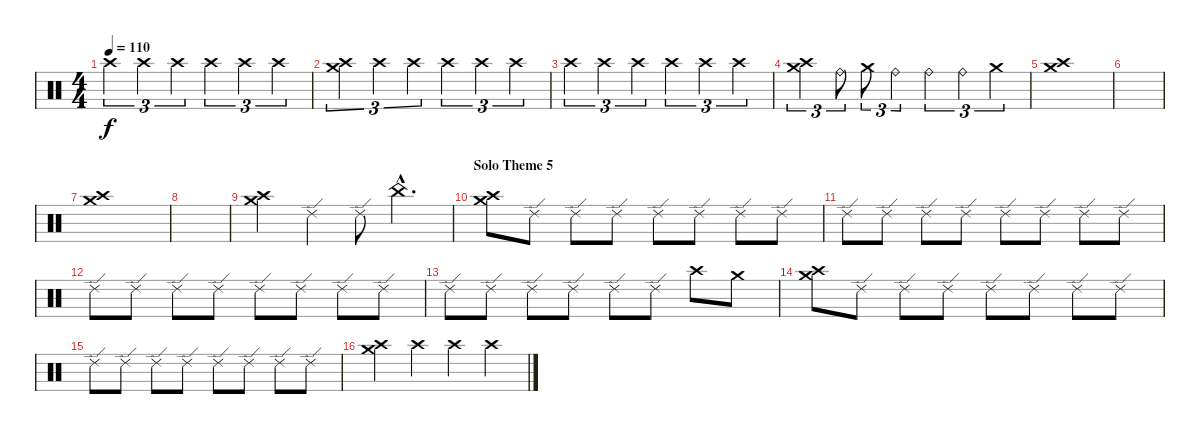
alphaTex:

\track "" {instrument percussion}
\staff {score}
\articulation defaults
\ts (4 4)
\tempo 110
\clef neutral
\ks c "Crash high (hit)".4{tu (3 2) dy f} "Crash high (hit)".4{tu (3 2)} "Crash high (hit)".4{tu (3 2)} "Crash high (hit)".4{tu (3 2)} "Crash high (hit)".4{tu (3 2)} "Crash high (hit)".4{tu (3 2)}
|
("Crash medium (hit)" "Crash high (hit)").4{tu (3 2)} "Crash high (hit)".4{tu (3 2)} "Crash high (hit)".4{tu (3 2)} "Crash high (hit)".4{tu (3 2)} "Crash high (hit)".4{tu (3 2)} "Crash high (hit)".4{tu (3 2)} |
"Crash high (hit)".4{tu (3 2)} "Crash high (hit)".4{tu (3 2)} "Crash high (hit)".4{tu (3 2)} "Crash high (hit)".4{tu (3 2)} "Crash high (hit)".4{tu (3 2)} "Crash high (hit)".4{tu (3 2)} |
("Crash medium (hit)" "Crash high (hit)").4{tu (3 2)} "Ride (bell)".8{tu (3 2)} "Crash medium (hit)".8{tu (3 2)} "Ride (bell)".4{tu (3 2)} "Ride (bell)".4{tu (3 2)} "Ride (bell)".4{tu (3 2)} "Crash medium (hit)".4{tu (3 2)} |
("Crash medium (hit)" "Crash high (hit)").1 |
|
("Crash medium (hit)" "Crash high (hit)").1 |
|
("Crash medium (hit)" "Crash high (hit)").4 "Ride (edge) 2".4 "Ride (edge) 2".8 "China (hit)"{hac}.4{d} |
\section ("" "Solo Theme 5")
("Crash medium (hit)" "Crash high (hit)").8 "Ride (edge) 2".8 "Ride (edge) 2".8 "Ride (edge) 2".8 "Ride (edge) 2".8 "Ride (edge) 2".8 "Ride (edge) 2".8 "Ride (edge) 2".8 |
"Ride (edge) 2".8 "Ride (edge) 2".8 "Ride (edge) 2".8 "Ride (edge) 2".8 "Ride (edge) 2".8 "Ride (edge) 2".8 "Ride (edge) 2".8 "Ride (edge) 2".8 |
"Ride (edge) 2".8 "Ride (edge) 2".8 "Ride (edge) 2".8 "Ride (edge) 2".8 "Ride (edge) 2".8 "Ride (edge) 2".8 "Ride (edge) 2".8 "Ride (edge) 2".8 |
"Ride (edge) 2".8 "Ride (edge) 2".8 "Ride (edge) 2".8 "Ride (edge) 2".8 "Ride (edge) 2".8 "Ride (edge) 2".8 "Crash high (hit)".8 "Crash medium (hit)".8 |
("Crash medium (hit)" "Crash high (hit)").8 "Ride (edge) 2".8 "Ride (edge) 2".8 "Ride (edge) 2".8 "Ride (edge) 2".8 "Ride (edge) 2".8 "Ride (edge) 2".8 "Ride (edge) 2".8 |
"Ride (edge) 2".8 "Ride (edge) 2".8 "Ride (edge) 2".8 "Ride (edge) 2".8 "Ride (edge) 2".8 "Ride (edge) 2".8 "Ride (edge) 2".8 "Ride (edge) 2".8 |
("Crash medium (hit)" "Crash high (hit)").4 "Crash high (hit)".4 "Crash high (hit)".4 "Crash high (hit)".4
